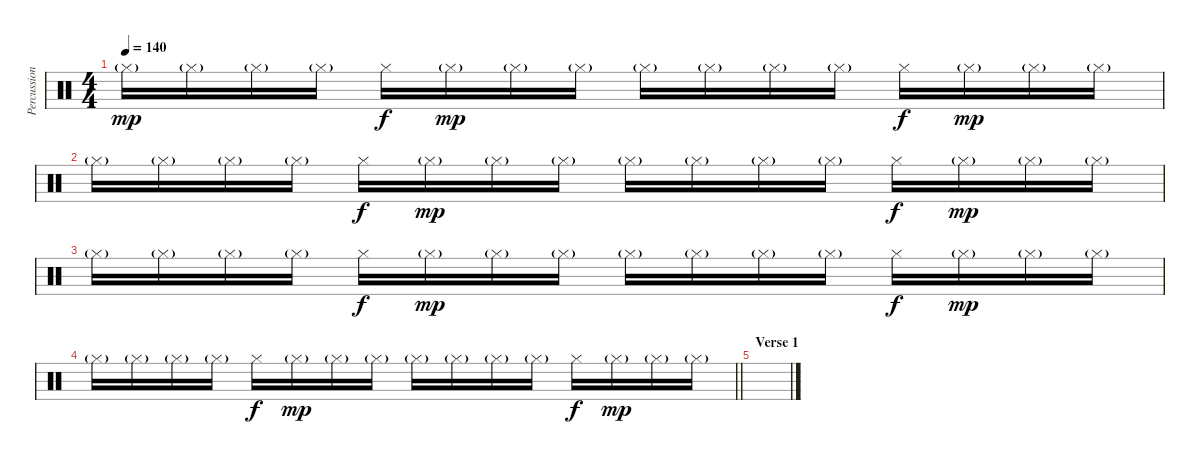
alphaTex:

\track ("Percussion" "Percussion") {instrument percussion}
\staff {score}
\articulation defaults
\ts (4 4)
\section ("" "")
\tempo 140
\clef neutral
\ks c "Hi-Hat (closed)"{g}.16{dy mp} "Hi-Hat (closed)"{g}.16 "Hi-Hat (closed)"{g}.16 "Hi-Hat (closed)"{g}.16 "Hi-Hat (closed)".16{dy f} "Hi-Hat (closed)"{g}.16{dy mp} "Hi-Hat (closed)"{g}.16 "Hi-Hat (closed)"{g}.16 "Hi-Hat (closed)"{g}.16 "Hi-Hat (closed)"{g}.16 "Hi-Hat (closed)"{g}.16 "Hi-Hat (closed)"{g}.16 "Hi-Hat (closed)".16{dy f} "Hi-Hat (closed)"{g}.16{dy mp} "Hi-Hat (closed)"{g}.16 "Hi-Hat (closed)"{g}.16
|
"Hi-Hat (closed)"{g}.16 "Hi-Hat (closed)"{g}.16 "Hi-Hat (closed)"{g}.16 "Hi-Hat (closed)"{g}.16 "Hi-Hat (closed)".16{dy f} "Hi-Hat (closed)"{g}.16{dy mp} "Hi-Hat (closed)"{g}.16 "Hi-Hat (closed)"{g}.16 "Hi-Hat (closed)"{g}.16 "Hi-Hat (closed)"{g}.16 "Hi-Hat (closed)"{g}.16 "Hi-Hat (closed)"{g}.16 "Hi-Hat (closed)".16{dy f} "Hi-Hat (closed)"{g}.16{dy mp} "Hi-Hat (closed)"{g}.16 "Hi-Hat (closed)"{g}.16 |
"Hi-Hat (closed)"{g}.16 "Hi-Hat (closed)"{g}.16 "Hi-Hat (closed)"{g}.16 "Hi-Hat (closed)"{g}.16 "Hi-Hat (closed)".16{dy f} "Hi-Hat (closed)"{g}.16{dy mp} "Hi-Hat (closed)"{g}.16 "Hi-Hat (closed)"{g}.16 "Hi-Hat (closed)"{g}.16 "Hi-Hat (closed)"{g}.16 "Hi-Hat (closed)"{g}.16 "Hi-Hat (closed)"{g}.16 "Hi-Hat (closed)".16{dy f} "Hi-Hat (closed)"{g}.16{dy mp} "Hi-Hat (closed)"{g}.16 "Hi-Hat (closed)"{g}.16 |
\barLineRight lightlight "Hi-Hat (closed)"{g}.16 "Hi-Hat (closed)"{g}.16 "Hi-Hat (closed)"{g}.16 "Hi-Hat (closed)"{g}.16 "Hi-Hat (closed)".16{dy f} "Hi-Hat (closed)"{g}.16{dy mp} "Hi-Hat (closed)"{g}.16 "Hi-Hat (closed)"{g}.16 "Hi-Hat (closed)"{g}.16 "Hi-Hat (closed)"{g}.16 "Hi-Hat (closed)"{g}.16 "Hi-Hat (closed)"{g}.16 "Hi-Hat (closed)".16{dy f} "Hi-Hat (closed)"{g}.16{dy mp} "Hi-Hat (closed)"{g}.16 "Hi-Hat (closed)"{g}.16
|
\section ("" "Verse 1")
